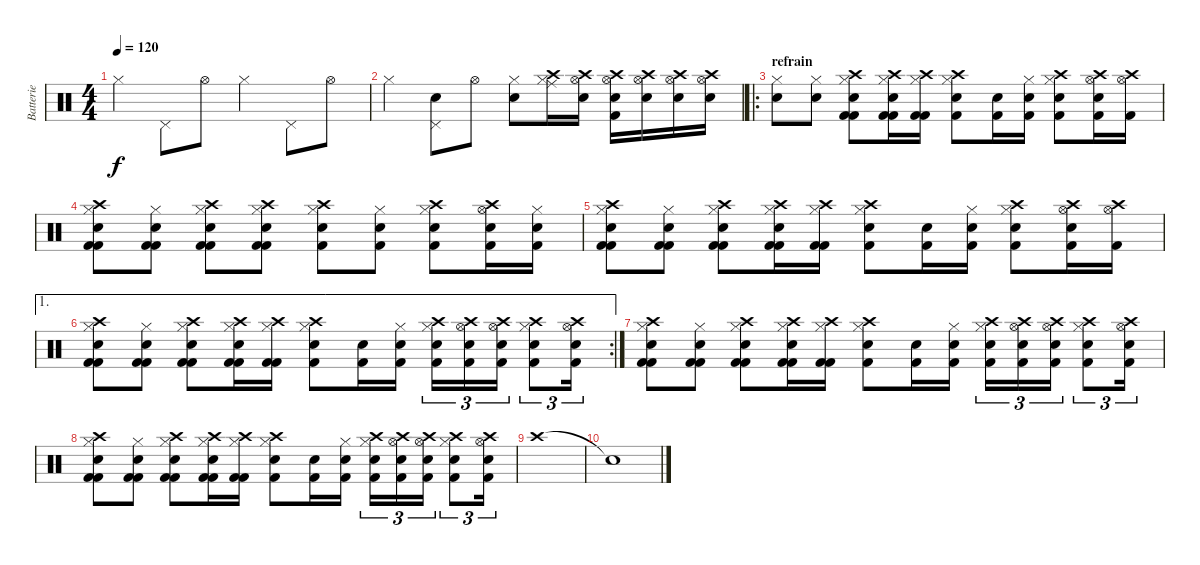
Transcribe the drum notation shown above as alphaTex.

\track ("Batterie" "Batterie") {instrument percussion}
\staff {score}
\articulation defaults
\ts (4 4)
\tempo 120
\clef neutral
\ks c "Hi-Hat (closed)".4{dy f} "Pedal Hi-Hat (hit)".8 "Hi-Hat (open)".8 "Hi-Hat (closed)".4 "Pedal Hi-Hat (hit)".8 "Hi-Hat (open)".8
|
"Hi-Hat (closed)".4 ("Pedal Hi-Hat (hit)" "Snare (hit) 2").8 "Hi-Hat (open)".8 ("Hi-Hat (closed)" "Snare (hit) 2").8 ("Hi-Hat (closed)" "Ride (middle)" "Crash high (hit)").16 ("Hi-Hat (open)" "Snare (hit) 2" "Crash high (hit)").16 ("Hi-Hat (open)" "Kick (hit) 2" "Snare (hit) 2" "Crash high (hit)").16 ("Hi-Hat (open)" "Snare (hit) 2" "Crash high (hit)").16 ("Hi-Hat (open)" "Snare (hit) 2" "Crash high (hit)").16 ("Hi-Hat (open)" "Snare (hit) 2" "Crash high (hit)").16 |
\ro
\section ("" "refrain")
("Hi-Hat (closed)" "Snare (hit) 2").8 ("Hi-Hat (closed)" "Snare (hit) 2").8 ("Hi-Hat (closed)" "Crash high (hit)" "Snare (hit) 2" "Kick (hit) 2" "Kick (hit) 2").8 ("Hi-Hat (closed)" "Crash high (hit)" "Snare (hit) 2" "Kick (hit) 2" "Kick (hit) 2").16 ("Hi-Hat (closed)" "Crash high (hit)" "Kick (hit) 2" "Kick (hit) 2").16 ("Hi-Hat (closed)" "Crash high (hit)" "Snare (hit) 2" "Kick (hit) 2").8 ("Snare (hit) 2" "Kick (hit) 2").16 ("Hi-Hat (closed)" "Snare (hit) 2" "Kick (hit) 2").16 ("Hi-Hat (closed)" "Crash high (hit)" "Snare (hit) 2" "Kick (hit) 2").8 ("Hi-Hat (open)" "Crash high (hit)" "Snare (hit) 2" "Kick (hit) 2").16 ("Hi-Hat (open)" "Crash high (hit)" "Kick (hit) 2").16 |
("Hi-Hat (closed)" "Crash high (hit)" "Snare (hit) 2" "Kick (hit) 2" "Kick (hit) 2").8 ("Hi-Hat (closed)" "Snare (hit) 2" "Kick (hit) 2" "Kick (hit) 2").8 ("Hi-Hat (closed)" "Crash high (hit)" "Snare (hit) 2" "Kick (hit) 2" "Kick (hit) 2").8 ("Hi-Hat (closed)" "Crash high (hit)" "Snare (hit) 2" "Kick (hit) 2" "Kick (hit) 2").8 ("Hi-Hat (closed)" "Crash high (hit)" "Snare (hit) 2" "Kick (hit) 2").8 ("Hi-Hat (closed)" "Snare (hit) 2" "Kick (hit) 2").8 ("Hi-Hat (closed)" "Crash high (hit)" "Snare (hit) 2" "Kick (hit) 2").8 ("Hi-Hat (open)" "Crash high (hit)" "Snare (hit) 2" "Kick (hit) 2").16 ("Hi-Hat (closed)" "Snare (hit) 2" "Kick (hit) 2").16 |
("Hi-Hat (closed)" "Crash high (hit)" "Snare (hit) 2" "Kick (hit) 2" "Kick (hit) 2").8 ("Hi-Hat (closed)" "Snare (hit) 2" "Kick (hit) 2" "Kick (hit) 2").8 ("Hi-Hat (closed)" "Crash high (hit)" "Snare (hit) 2" "Kick (hit) 2" "Kick (hit) 2").8 ("Hi-Hat (closed)" "Crash high (hit)" "Snare (hit) 2" "Kick (hit) 2" "Kick (hit) 2").16 ("Hi-Hat (closed)" "Crash high (hit)" "Kick (hit) 2" "Kick (hit) 2").16 ("Hi-Hat (closed)" "Crash high (hit)" "Snare (hit) 2" "Kick (hit) 2").8 ("Snare (hit) 2" "Kick (hit) 2").16 ("Hi-Hat (closed)" "Snare (hit) 2" "Kick (hit) 2").16 ("Hi-Hat (closed)" "Crash high (hit)" "Snare (hit) 2" "Kick (hit) 2").8 ("Hi-Hat (open)" "Crash high (hit)" "Snare (hit) 2" "Kick (hit) 2").16 ("Hi-Hat (open)" "Crash high (hit)" "Kick (hit) 2").16 |
\ae 1
\rc 2
("Hi-Hat (closed)" "Crash high (hit)" "Snare (hit) 2" "Kick (hit) 2" "Kick (hit) 2").8 ("Hi-Hat (closed)" "Snare (hit) 2" "Kick (hit) 2" "Kick (hit) 2").8 ("Hi-Hat (closed)" "Crash high (hit)" "Snare (hit) 2" "Kick (hit) 2" "Kick (hit) 2").8 ("Hi-Hat (closed)" "Crash high (hit)" "Snare (hit) 2" "Kick (hit) 2" "Kick (hit) 2").16 ("Hi-Hat (closed)" "Crash high (hit)" "Kick (hit) 2" "Kick (hit) 2").16 ("Hi-Hat (closed)" "Crash high (hit)" "Snare (hit) 2" "Kick (hit) 2").8 ("Snare (hit) 2" "Kick (hit) 2").16 ("Hi-Hat (closed)" "Snare (hit) 2" "Kick (hit) 2").16 ("Hi-Hat (closed)" "Crash high (hit)" "Snare (hit) 2" "Kick (hit) 2").16{tu (3 2)} ("Hi-Hat (open)" "Crash high (hit)" "Snare (hit) 2" "Kick (hit) 2").16{tu (3 2)} ("Hi-Hat (open)" "Crash high (hit)" "Snare (hit) 2" "Kick (hit) 2").16{tu (3 2)} ("Hi-Hat (closed)" "Crash high (hit)" "Snare (hit) 2" "Kick (hit) 2").8{tu (3 2)} ("Hi-Hat (open)" "Crash high (hit)" "Snare (hit) 2" "Kick (hit) 2").16{tu (3 2)} |
("Hi-Hat (closed)" "Crash high (hit)" "Snare (hit) 2" "Kick (hit) 2" "Kick (hit) 2").8 ("Hi-Hat (closed)" "Snare (hit) 2" "Kick (hit) 2" "Kick (hit) 2").8 ("Hi-Hat (closed)" "Crash high (hit)" "Snare (hit) 2" "Kick (hit) 2" "Kick (hit) 2").8 ("Hi-Hat (closed)" "Crash high (hit)" "Snare (hit) 2" "Kick (hit) 2" "Kick (hit) 2").16 ("Hi-Hat (closed)" "Crash high (hit)" "Kick (hit) 2" "Kick (hit) 2").16 ("Hi-Hat (closed)" "Crash high (hit)" "Snare (hit) 2" "Kick (hit) 2").8 ("Snare (hit) 2" "Kick (hit) 2").16 ("Hi-Hat (closed)" "Snare (hit) 2" "Kick (hit) 2").16 ("Hi-Hat (closed)" "Crash high (hit)" "Snare (hit) 2" "Kick (hit) 2").16{tu (3 2)} ("Hi-Hat (open)" "Crash high (hit)" "Snare (hit) 2" "Kick (hit) 2").16{tu (3 2)} ("Hi-Hat (open)" "Crash high (hit)" "Snare (hit) 2" "Kick (hit) 2").16{tu (3 2)} ("Hi-Hat (closed)" "Crash high (hit)" "Snare (hit) 2" "Kick (hit) 2").8{tu (3 2)} ("Hi-Hat (open)" "Crash high (hit)" "Snare (hit) 2" "Kick (hit) 2").16{tu (3 2)} |
("Hi-Hat (closed)" "Crash high (hit)" "Snare (hit) 2" "Kick (hit) 2" "Kick (hit) 2").8 ("Hi-Hat (closed)" "Snare (hit) 2" "Kick (hit) 2" "Kick (hit) 2").8 ("Hi-Hat (closed)" "Crash high (hit)" "Snare (hit) 2" "Kick (hit) 2" "Kick (hit) 2").8 ("Hi-Hat (closed)" "Crash high (hit)" "Snare (hit) 2" "Kick (hit) 2" "Kick (hit) 2").16 ("Hi-Hat (closed)" "Crash high (hit)" "Kick (hit) 2" "Kick (hit) 2").16 ("Hi-Hat (closed)" "Crash high (hit)" "Snare (hit) 2" "Kick (hit) 2").8 ("Snare (hit) 2" "Kick (hit) 2").16 ("Hi-Hat (closed)" "Snare (hit) 2" "Kick (hit) 2").16 ("Hi-Hat (closed)" "Crash high (hit)" "Snare (hit) 2" "Kick (hit) 2").16{tu (3 2)} ("Hi-Hat (open)" "Crash high (hit)" "Snare (hit) 2" "Kick (hit) 2").16{tu (3 2)} ("Hi-Hat (open)" "Crash high (hit)" "Snare (hit) 2" "Kick (hit) 2").16{tu (3 2)} ("Hi-Hat (closed)" "Crash high (hit)" "Snare (hit) 2" "Kick (hit) 2").8{tu (3 2)} ("Hi-Hat (open)" "Crash high (hit)" "Snare (hit) 2" "Kick (hit) 2").16{tu (3 2)} |
"Crash high (hit)".1 |
"Snare (hit)"{t}.1
